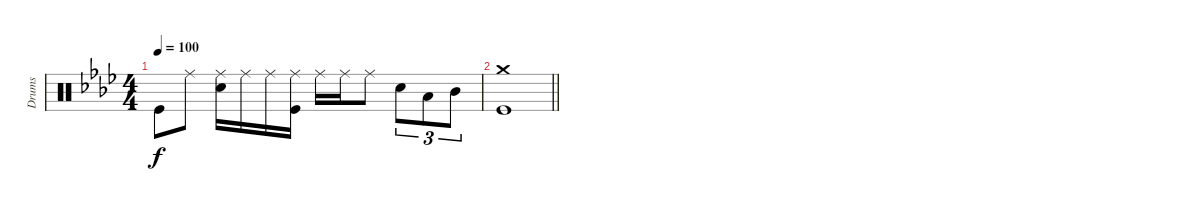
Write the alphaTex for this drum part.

\track ("Drums" "Drums") {instrument percussion}
\staff {score}
\articulation defaults
\ts (4 4)
\tempo 100
\clef neutral
\ks ab "Kick (hit)".8{dy f} "Ride (middle)".8
("Ride (middle)" "Snare (hit) 2").16 "Ride (middle)".16 "Ride (middle)".16 ("Ride (middle)" "Kick (hit)").16 "Ride (middle)".16 "Ride (middle)".16 "Ride (middle)".8 "Snare (hit) 2".8{tu (3 2)} "Low Tom (hit)".8{tu (3 2)} "Mid Tom (hit)".8{tu (3 2)} |
\barLineRight lightlight
("Crash medium (hit)" "Kick (hit)").1
